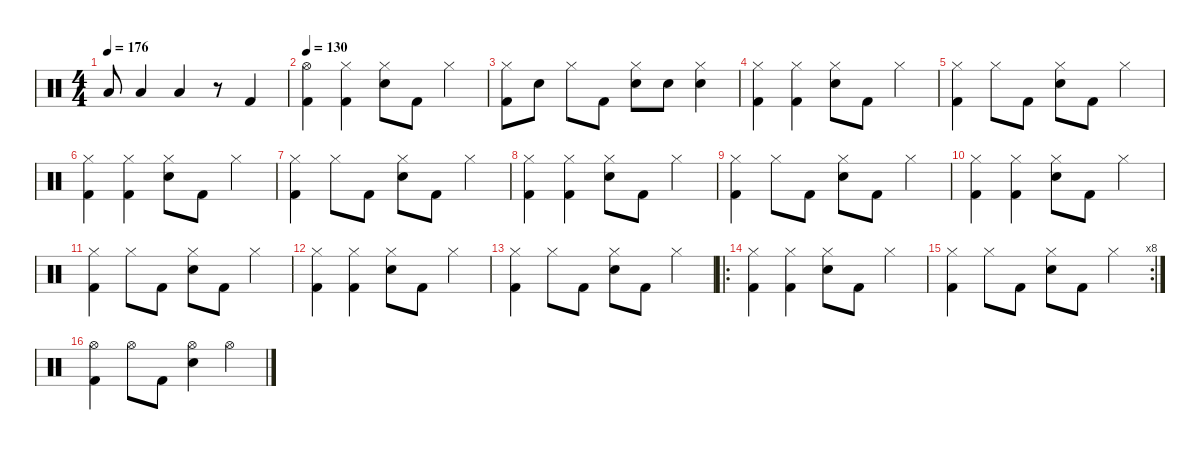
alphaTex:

\defaultSystemsLayout 4
\hideDynamics
\bracketExtendMode nobrackets
\singleTrackTrackNamePolicy hidden
\multiTrackTrackNamePolicy hidden
\firstSystemTrackNameMode fullname
\firstSystemTrackNameOrientation horizontal
\otherSystemsTrackNameOrientation horizontal
\track ("Bill Ward" "drm.") {instrument percussion}
\staff {score}
\articulation defaults
\ts (4 4)
\tempo 176
\clef neutral
\ks c "Low Floor Tom (hit)".8{dy f beam Up} "Low Floor Tom (hit)".4{beam Up} "Low Floor Tom (hit)".4{beam Up}
r.8{beam Up} "Kick (hit) 2".4{beam Up} |
\tempo 130
("Hi-Hat (open)" "Kick (hit) 2").4{beam Down} ("Hi-Hat (closed)" "Kick (hit) 2").4{beam Down} ("Hi-Hat (closed)" "Snare (hit) 2").8{beam Down} "Kick (hit) 2".8{beam Down} "Hi-Hat (closed)".4{beam Down} |
("Hi-Hat (closed)" "Kick (hit) 2").8{beam Down} "Snare (hit) 2".8{beam Down} "Hi-Hat (closed)".8{beam Down} "Kick (hit) 2".8{beam Down} ("Hi-Hat (closed)" "Snare (hit) 2").8{beam Down} "Snare (hit) 2".8{beam Down} ("Hi-Hat (closed)" "Snare (hit) 2").4{beam Down} |
("Hi-Hat (closed)" "Kick (hit) 2").4{beam Down} ("Hi-Hat (closed)" "Kick (hit) 2").4{beam Down} ("Hi-Hat (closed)" "Snare (hit) 2").8{beam Down} "Kick (hit) 2".8{beam Down} "Hi-Hat (closed)".4{beam Down} |
("Hi-Hat (closed)" "Kick (hit) 2").4{beam Down} "Hi-Hat (closed)".8{beam Down} "Kick (hit) 2".8{beam Down} ("Hi-Hat (closed)" "Snare (hit) 2").8{beam Down} "Kick (hit) 2".8{beam Down} "Hi-Hat (closed)".4{beam Down} |
("Hi-Hat (closed)" "Kick (hit) 2").4{beam Down} ("Hi-Hat (closed)" "Kick (hit) 2").4{beam Down} ("Hi-Hat (closed)" "Snare (hit) 2").8{beam Down} "Kick (hit) 2".8{beam Down} "Hi-Hat (closed)".4{beam Down} |
("Hi-Hat (closed)" "Kick (hit) 2").4{beam Down} "Hi-Hat (closed)".8{beam Down} "Kick (hit) 2".8{beam Down} ("Hi-Hat (closed)" "Snare (hit) 2").8{beam Down} "Kick (hit) 2".8{beam Down} "Hi-Hat (closed)".4{beam Down} |
("Hi-Hat (closed)" "Kick (hit) 2").4{beam Down} ("Hi-Hat (closed)" "Kick (hit) 2").4{beam Down} ("Hi-Hat (closed)" "Snare (hit) 2").8{beam Down} "Kick (hit) 2".8{beam Down} "Hi-Hat (closed)".4{beam Down} |
("Hi-Hat (closed)" "Kick (hit) 2").4{beam Down} "Hi-Hat (closed)".8{beam Down} "Kick (hit) 2".8{beam Down} ("Hi-Hat (closed)" "Snare (hit) 2").8{beam Down} "Kick (hit) 2".8{beam Down} "Hi-Hat (closed)".4{beam Down} |
("Hi-Hat (closed)" "Kick (hit) 2").4{beam Down} ("Hi-Hat (closed)" "Kick (hit) 2").4{beam Down} ("Hi-Hat (closed)" "Snare (hit) 2").8{beam Down} "Kick (hit) 2".8{beam Down} "Hi-Hat (closed)".4{beam Down} |
("Hi-Hat (closed)" "Kick (hit) 2").4{beam Down} "Hi-Hat (closed)".8{beam Down} "Kick (hit) 2".8{beam Down} ("Hi-Hat (closed)" "Snare (hit) 2").8{beam Down} "Kick (hit) 2".8{beam Down} "Hi-Hat (closed)".4{beam Down} |
("Hi-Hat (closed)" "Kick (hit) 2").4{beam Down} ("Hi-Hat (closed)" "Kick (hit) 2").4{beam Down} ("Hi-Hat (closed)" "Snare (hit) 2").8{beam Down} "Kick (hit) 2".8{beam Down} "Hi-Hat (closed)".4{beam Down} |
("Hi-Hat (closed)" "Kick (hit) 2").4{beam Down} "Hi-Hat (closed)".8{beam Down} "Kick (hit) 2".8{beam Down} ("Hi-Hat (closed)" "Snare (hit) 2").8{beam Down} "Kick (hit) 2".8{beam Down} "Hi-Hat (closed)".4{beam Down} |
\ro
("Hi-Hat (closed)" "Kick (hit) 2").4{beam Down} ("Hi-Hat (closed)" "Kick (hit) 2").4{beam Down} ("Hi-Hat (closed)" "Snare (hit) 2").8{beam Down} "Kick (hit) 2".8{beam Down} "Hi-Hat (closed)".4{beam Down} |
\rc 8
("Hi-Hat (closed)" "Kick (hit) 2").4{beam Down} "Hi-Hat (closed)".8{beam Down} "Kick (hit) 2".8{beam Down} ("Hi-Hat (closed)" "Snare (hit) 2").8{beam Down} "Kick (hit) 2".8{beam Down} "Hi-Hat (closed)".4{beam Down} |
("Hi-Hat (open)" "Kick (hit) 2").4{beam Down} "Hi-Hat (open)".8{beam Down} "Kick (hit) 2".8{beam Down} ("Hi-Hat (open)" "Snare (hit) 2").4{beam Down} "Hi-Hat (open)".4{beam Down}
